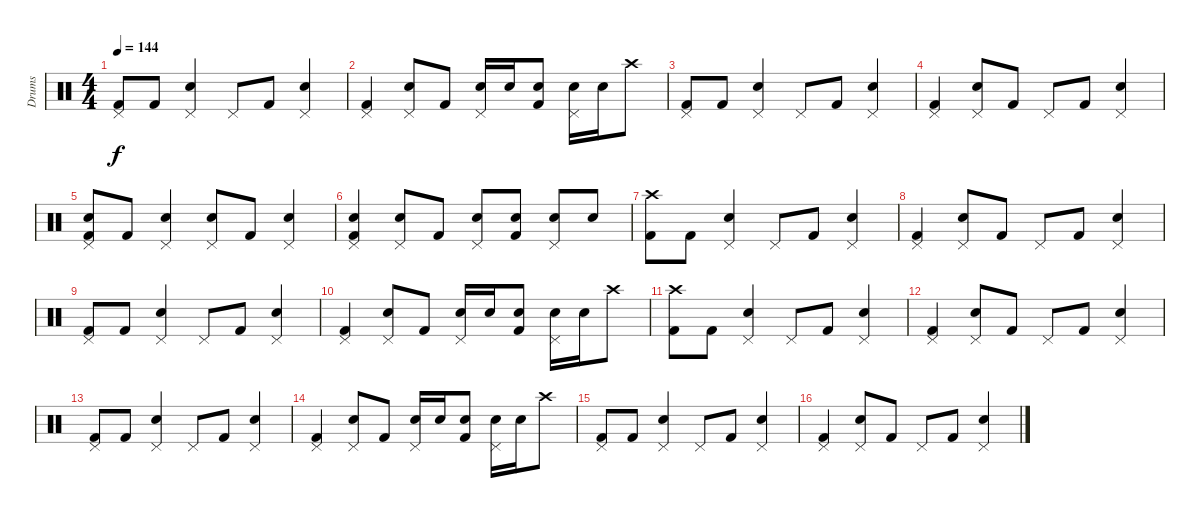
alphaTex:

\track ("Drums" "Drums") {instrument percussion}
\staff {score}
\articulation defaults
\ts (4 4)
\tempo 144
\clef neutral
\ks c
("Pedal Hi-Hat (hit)" "Kick (hit) 2").8{dy f} "Kick (hit) 2".8 ("Pedal Hi-Hat (hit)" "Electric Snare (hit)").4 "Pedal Hi-Hat (hit)".8 "Kick (hit) 2".8 ("Pedal Hi-Hat (hit)" "Electric Snare (hit)").4 |
("Kick (hit) 2" "Pedal Hi-Hat (hit)").4 ("Electric Snare (hit)" "Pedal Hi-Hat (hit)").8 "Kick (hit) 2".8 ("Electric Snare (hit)" "Pedal Hi-Hat (hit)").16 "Electric Snare (hit)".16 ("Electric Snare (hit)" "Kick (hit) 2").8 ("Electric Snare (hit)" "Pedal Hi-Hat (hit)").16 "Electric Snare (hit)".16 "Crash high (hit)".8 |
("Pedal Hi-Hat (hit)" "Kick (hit) 2").8 "Kick (hit) 2".8 ("Pedal Hi-Hat (hit)" "Electric Snare (hit)").4 "Pedal Hi-Hat (hit)".8 "Kick (hit) 2".8 ("Pedal Hi-Hat (hit)" "Electric Snare (hit)").4 |
("Kick (hit) 2" "Pedal Hi-Hat (hit)").4 ("Electric Snare (hit)" "Pedal Hi-Hat (hit)").8 "Kick (hit) 2".8 "Pedal Hi-Hat (hit)".8 "Kick (hit) 2".8 ("Electric Snare (hit)" "Pedal Hi-Hat (hit)").4 |
("Electric Snare (hit)" "Pedal Hi-Hat (hit)" "Kick (hit) 2").8 "Kick (hit) 2".8 ("Pedal Hi-Hat (hit)" "Electric Snare (hit)").4 ("Electric Snare (hit)" "Pedal Hi-Hat (hit)").8 "Kick (hit) 2".8 ("Pedal Hi-Hat (hit)" "Electric Snare (hit)").4 |
("Electric Snare (hit)" "Kick (hit) 2" "Pedal Hi-Hat (hit)").4 ("Electric Snare (hit)" "Pedal Hi-Hat (hit)").8 "Kick (hit) 2".8 ("Electric Snare (hit)" "Pedal Hi-Hat (hit)").8 ("Electric Snare (hit)" "Kick (hit) 2").8 ("Electric Snare (hit)" "Pedal Hi-Hat (hit)").8 "Electric Snare (hit)".8 |
("Crash high (hit)" "Kick (hit) 2").8 "Kick (hit) 2".8 ("Pedal Hi-Hat (hit)" "Electric Snare (hit)").4 "Pedal Hi-Hat (hit)".8 "Kick (hit) 2".8 ("Pedal Hi-Hat (hit)" "Electric Snare (hit)").4 |
("Kick (hit) 2" "Pedal Hi-Hat (hit)").4 ("Electric Snare (hit)" "Pedal Hi-Hat (hit)").8 "Kick (hit) 2".8 "Pedal Hi-Hat (hit)".8 "Kick (hit) 2".8 ("Electric Snare (hit)" "Pedal Hi-Hat (hit)").4 |
("Pedal Hi-Hat (hit)" "Kick (hit) 2").8 "Kick (hit) 2".8 ("Pedal Hi-Hat (hit)" "Electric Snare (hit)").4 "Pedal Hi-Hat (hit)".8 "Kick (hit) 2".8 ("Pedal Hi-Hat (hit)" "Electric Snare (hit)").4 |
("Kick (hit) 2" "Pedal Hi-Hat (hit)").4 ("Electric Snare (hit)" "Pedal Hi-Hat (hit)").8 "Kick (hit) 2".8 ("Electric Snare (hit)" "Pedal Hi-Hat (hit)").16 "Electric Snare (hit)".16 ("Electric Snare (hit)" "Kick (hit) 2").8 ("Electric Snare (hit)" "Pedal Hi-Hat (hit)").16 "Electric Snare (hit)".16 "Crash high (hit)".8 |
("Crash high (hit)" "Kick (hit) 2").8 "Kick (hit) 2".8 ("Pedal Hi-Hat (hit)" "Electric Snare (hit)").4 "Pedal Hi-Hat (hit)".8 "Kick (hit) 2".8 ("Pedal Hi-Hat (hit)" "Electric Snare (hit)").4 |
("Kick (hit) 2" "Pedal Hi-Hat (hit)").4 ("Electric Snare (hit)" "Pedal Hi-Hat (hit)").8 "Kick (hit) 2".8 "Pedal Hi-Hat (hit)".8 "Kick (hit) 2".8 ("Electric Snare (hit)" "Pedal Hi-Hat (hit)").4 |
("Pedal Hi-Hat (hit)" "Kick (hit) 2").8 "Kick (hit) 2".8 ("Pedal Hi-Hat (hit)" "Electric Snare (hit)").4 "Pedal Hi-Hat (hit)".8 "Kick (hit) 2".8 ("Pedal Hi-Hat (hit)" "Electric Snare (hit)").4 |
("Kick (hit) 2" "Pedal Hi-Hat (hit)").4 ("Electric Snare (hit)" "Pedal Hi-Hat (hit)").8 "Kick (hit) 2".8 ("Electric Snare (hit)" "Pedal Hi-Hat (hit)").16 "Electric Snare (hit)".16 ("Electric Snare (hit)" "Kick (hit) 2").8 ("Electric Snare (hit)" "Pedal Hi-Hat (hit)").16 "Electric Snare (hit)".16 "Crash high (hit)".8 |
("Pedal Hi-Hat (hit)" "Kick (hit) 2").8 "Kick (hit) 2".8 ("Pedal Hi-Hat (hit)" "Electric Snare (hit)").4 "Pedal Hi-Hat (hit)".8 "Kick (hit) 2".8 ("Pedal Hi-Hat (hit)" "Electric Snare (hit)").4 |
("Kick (hit) 2" "Pedal Hi-Hat (hit)").4 ("Electric Snare (hit)" "Pedal Hi-Hat (hit)").8 "Kick (hit) 2".8 "Pedal Hi-Hat (hit)".8 "Kick (hit) 2".8 ("Electric Snare (hit)" "Pedal Hi-Hat (hit)").4
